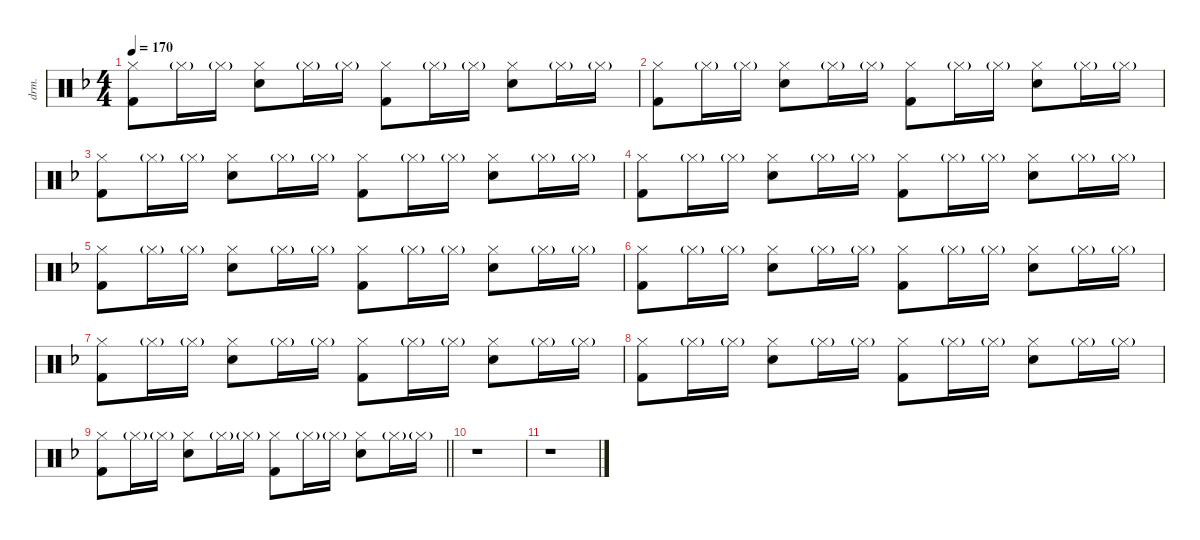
\defaultSystemsLayout 4
\hideDynamics
\bracketExtendMode nobrackets
\otherSystemsTrackNameOrientation horizontal
\track ("Drums" "drm.") {instrument percussion}
\staff {score}
\articulation defaults
\ts (4 4)
\tempo 170
\clef neutral
\ks dminor
("Hi-Hat (closed)"{acc forcenatural} "Kick (hit) 2"{acc forcenatural}).8{dy f beam Down} "Hi-Hat (closed)"{g acc forcenatural}.16{dy mf beam Down} "Hi-Hat (closed)"{g acc forcenatural}.16{beam Down} ("Hi-Hat (closed)"{acc forcenatural} "Snare (hit) 2"{acc forcenatural}).8{dy mp beam Down} "Hi-Hat (closed)"{g acc forcenatural}.16{dy mf beam Down} "Hi-Hat (closed)"{g acc forcenatural}.16{beam Down} ("Hi-Hat (closed)"{acc forcenatural} "Kick (hit) 2"{acc forcenatural}).8{dy f beam Down} "Hi-Hat (closed)"{g acc forcenatural}.16{dy mf beam Down} "Hi-Hat (closed)"{g acc forcenatural}.16{beam Down} ("Hi-Hat (closed)"{acc forcenatural} "Snare (hit) 2"{acc forcenatural}).8{dy mp beam Down} "Hi-Hat (closed)"{g acc forcenatural}.16{dy mf beam Down} "Hi-Hat (closed)"{g acc forcenatural}.16{beam Down} |
("Hi-Hat (closed)"{acc forcenatural} "Kick (hit) 2"{acc forcenatural}).8{dy f beam Down} "Hi-Hat (closed)"{g acc forcenatural}.16{dy mf beam Down} "Hi-Hat (closed)"{g acc forcenatural}.16{beam Down} ("Hi-Hat (closed)"{acc forcenatural} "Snare (hit) 2"{acc forcenatural}).8{dy mp beam Down} "Hi-Hat (closed)"{g acc forcenatural}.16{dy mf beam Down} "Hi-Hat (closed)"{g acc forcenatural}.16{beam Down} ("Hi-Hat (closed)"{acc forcenatural} "Kick (hit) 2"{acc forcenatural}).8{dy f beam Down} "Hi-Hat (closed)"{g acc forcenatural}.16{dy mf beam Down} "Hi-Hat (closed)"{g acc forcenatural}.16{beam Down} ("Hi-Hat (closed)"{acc forcenatural} "Snare (hit) 2"{acc forcenatural}).8{dy mp beam Down} "Hi-Hat (closed)"{g acc forcenatural}.16{dy mf beam Down} "Hi-Hat (closed)"{g acc forcenatural}.16{beam Down} |
("Hi-Hat (closed)"{acc forcenatural} "Kick (hit) 2"{acc forcenatural}).8{dy f beam Down} "Hi-Hat (closed)"{g acc forcenatural}.16{dy mf beam Down} "Hi-Hat (closed)"{g acc forcenatural}.16{beam Down} ("Hi-Hat (closed)"{acc forcenatural} "Snare (hit) 2"{acc forcenatural}).8{dy mp beam Down} "Hi-Hat (closed)"{g acc forcenatural}.16{dy mf beam Down} "Hi-Hat (closed)"{g acc forcenatural}.16{beam Down} ("Hi-Hat (closed)"{acc forcenatural} "Kick (hit) 2"{acc forcenatural}).8{dy f beam Down} "Hi-Hat (closed)"{g acc forcenatural}.16{dy mf beam Down} "Hi-Hat (closed)"{g acc forcenatural}.16{beam Down} ("Hi-Hat (closed)"{acc forcenatural} "Snare (hit) 2"{acc forcenatural}).8{dy mp beam Down} "Hi-Hat (closed)"{g acc forcenatural}.16{dy mf beam Down} "Hi-Hat (closed)"{g acc forcenatural}.16{beam Down} |
("Hi-Hat (closed)"{acc forcenatural} "Kick (hit) 2"{acc forcenatural}).8{dy f beam Down} "Hi-Hat (closed)"{g acc forcenatural}.16{dy mf beam Down} "Hi-Hat (closed)"{g acc forcenatural}.16{beam Down} ("Hi-Hat (closed)"{acc forcenatural} "Snare (hit) 2"{acc forcenatural}).8{dy mp beam Down} "Hi-Hat (closed)"{g acc forcenatural}.16{dy mf beam Down} "Hi-Hat (closed)"{g acc forcenatural}.16{beam Down} ("Hi-Hat (closed)"{acc forcenatural} "Kick (hit) 2"{acc forcenatural}).8{dy f beam Down} "Hi-Hat (closed)"{g acc forcenatural}.16{dy mf beam Down} "Hi-Hat (closed)"{g acc forcenatural}.16{beam Down} ("Hi-Hat (closed)"{acc forcenatural} "Snare (hit) 2"{acc forcenatural}).8{dy mp beam Down} "Hi-Hat (closed)"{g acc forcenatural}.16{dy mf beam Down} "Hi-Hat (closed)"{g acc forcenatural}.16{beam Down} |
("Hi-Hat (closed)"{acc forcenatural} "Kick (hit) 2"{acc forcenatural}).8{dy f beam Down} "Hi-Hat (closed)"{g acc forcenatural}.16{dy mf beam Down} "Hi-Hat (closed)"{g acc forcenatural}.16{beam Down} ("Hi-Hat (closed)"{acc forcenatural} "Snare (hit) 2"{acc forcenatural}).8{dy mp beam Down} "Hi-Hat (closed)"{g acc forcenatural}.16{dy mf beam Down} "Hi-Hat (closed)"{g acc forcenatural}.16{beam Down} ("Hi-Hat (closed)"{acc forcenatural} "Kick (hit) 2"{acc forcenatural}).8{dy f beam Down} "Hi-Hat (closed)"{g acc forcenatural}.16{dy mf beam Down} "Hi-Hat (closed)"{g acc forcenatural}.16{beam Down} ("Hi-Hat (closed)"{acc forcenatural} "Snare (hit) 2"{acc forcenatural}).8{dy mp beam Down} "Hi-Hat (closed)"{g acc forcenatural}.16{dy mf beam Down} "Hi-Hat (closed)"{g acc forcenatural}.16{beam Down} |
("Hi-Hat (closed)"{acc forcenatural} "Kick (hit) 2"{acc forcenatural}).8{dy f beam Down} "Hi-Hat (closed)"{g acc forcenatural}.16{dy mf beam Down} "Hi-Hat (closed)"{g acc forcenatural}.16{beam Down} ("Hi-Hat (closed)"{acc forcenatural} "Snare (hit) 2"{acc forcenatural}).8{dy mp beam Down} "Hi-Hat (closed)"{g acc forcenatural}.16{dy mf beam Down} "Hi-Hat (closed)"{g acc forcenatural}.16{beam Down} ("Hi-Hat (closed)"{acc forcenatural} "Kick (hit) 2"{acc forcenatural}).8{dy f beam Down} "Hi-Hat (closed)"{g acc forcenatural}.16{dy mf beam Down} "Hi-Hat (closed)"{g acc forcenatural}.16{beam Down} ("Hi-Hat (closed)"{acc forcenatural} "Snare (hit) 2"{acc forcenatural}).8{dy mp beam Down} "Hi-Hat (closed)"{g acc forcenatural}.16{dy mf beam Down} "Hi-Hat (closed)"{g acc forcenatural}.16{beam Down} |
("Hi-Hat (closed)"{acc forcenatural} "Kick (hit) 2"{acc forcenatural}).8{dy f beam Down} "Hi-Hat (closed)"{g acc forcenatural}.16{dy mf beam Down} "Hi-Hat (closed)"{g acc forcenatural}.16{beam Down} ("Hi-Hat (closed)"{acc forcenatural} "Snare (hit) 2"{acc forcenatural}).8{dy mp beam Down} "Hi-Hat (closed)"{g acc forcenatural}.16{dy mf beam Down} "Hi-Hat (closed)"{g acc forcenatural}.16{beam Down} ("Hi-Hat (closed)"{acc forcenatural} "Kick (hit) 2"{acc forcenatural}).8{dy f beam Down} "Hi-Hat (closed)"{g acc forcenatural}.16{dy mf beam Down} "Hi-Hat (closed)"{g acc forcenatural}.16{beam Down} ("Hi-Hat (closed)"{acc forcenatural} "Snare (hit) 2"{acc forcenatural}).8{dy mp beam Down} "Hi-Hat (closed)"{g acc forcenatural}.16{dy mf beam Down} "Hi-Hat (closed)"{g acc forcenatural}.16{beam Down} |
("Hi-Hat (closed)"{acc forcenatural} "Kick (hit) 2"{acc forcenatural}).8{dy f beam Down} "Hi-Hat (closed)"{g acc forcenatural}.16{dy mf beam Down} "Hi-Hat (closed)"{g acc forcenatural}.16{beam Down} ("Hi-Hat (closed)"{acc forcenatural} "Snare (hit) 2"{acc forcenatural}).8{dy mp beam Down} "Hi-Hat (closed)"{g acc forcenatural}.16{dy mf beam Down} "Hi-Hat (closed)"{g acc forcenatural}.16{beam Down} ("Hi-Hat (closed)"{acc forcenatural} "Kick (hit) 2"{acc forcenatural}).8{dy f beam Down} "Hi-Hat (closed)"{g acc forcenatural}.16{dy mf beam Down} "Hi-Hat (closed)"{g acc forcenatural}.16{beam Down} ("Hi-Hat (closed)"{acc forcenatural} "Snare (hit) 2"{acc forcenatural}).8{dy mp beam Down} "Hi-Hat (closed)"{g acc forcenatural}.16{dy mf beam Down} "Hi-Hat (closed)"{g acc forcenatural}.16{beam Down} |
\barLineRight lightlight
("Hi-Hat (closed)"{acc forcenatural} "Kick (hit) 2"{acc forcenatural}).8{dy f beam Down} "Hi-Hat (closed)"{g acc forcenatural}.16{dy mf beam Down} "Hi-Hat (closed)"{g acc forcenatural}.16{beam Down} ("Hi-Hat (closed)"{acc forcenatural} "Snare (hit) 2"{acc forcenatural}).8{dy mp beam Down} "Hi-Hat (closed)"{g acc forcenatural}.16{dy mf beam Down} "Hi-Hat (closed)"{g acc forcenatural}.16{beam Down} ("Hi-Hat (closed)"{acc forcenatural} "Kick (hit) 2"{acc forcenatural}).8{dy f beam Down} "Hi-Hat (closed)"{g acc forcenatural}.16{dy mf beam Down} "Hi-Hat (closed)"{g acc forcenatural}.16{beam Down} ("Hi-Hat (closed)"{acc forcenatural} "Snare (hit) 2"{acc forcenatural}).8{dy mp beam Down} "Hi-Hat (closed)"{g acc forcenatural}.16{dy mf beam Down} "Hi-Hat (closed)"{g acc forcenatural}.16{beam Down} |
\section ("" "")
r.1{beam Down} |
r.1{beam Down}
